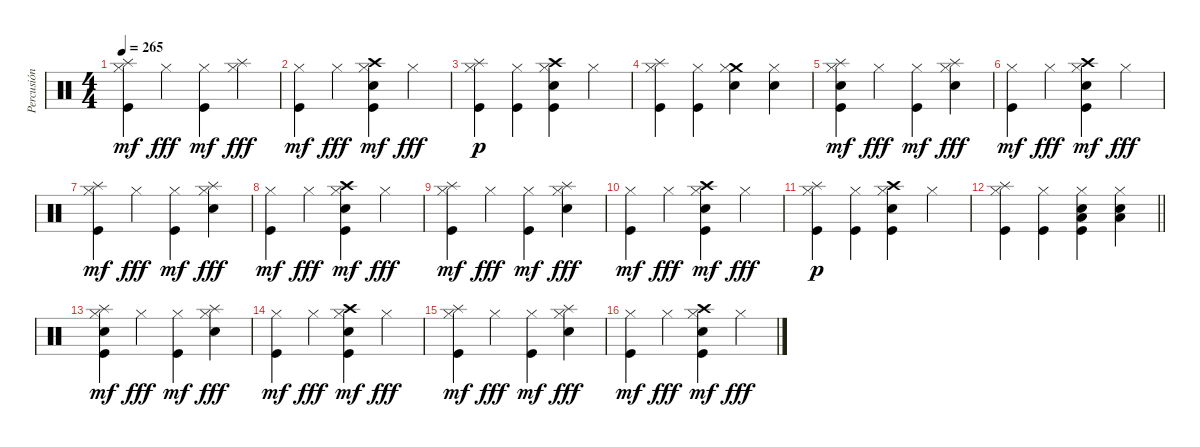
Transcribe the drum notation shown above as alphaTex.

\track ("Percusión" "Percusión") {instrument percussion}
\staff {score}
\articulation defaults
\ts (4 4)
\tempo 265
\clef neutral
\ks c
("Splash (hit)" "Hi-Hat (closed)" "Kick (hit)").4{dy mf} "Hi-Hat (closed)".4{dy fff} ("Hi-Hat (closed)" "Kick (hit)").4{dy mf} ("Splash (hit)" "Hi-Hat (closed)").4{dy fff} |
("Hi-Hat (closed)" "Kick (hit)").4{dy mf} "Hi-Hat (closed)".4{dy fff} ("Crash high (hit)" "Electric Snare (hit)" "Hi-Hat (closed)" "Kick (hit)").4{dy mf} "Hi-Hat (closed)".4{dy fff} |
("Splash (hit)" "Hi-Hat (closed)" "Kick (hit)").4{dy p} ("Hi-Hat (closed)" "Kick (hit)").4 ("Crash high (hit)" "Electric Snare (hit)" "Hi-Hat (closed)" "Kick (hit)").4 "Hi-Hat (closed)".4 |
("Splash (hit)" "Hi-Hat (closed)" "Kick (hit)").4 ("Hi-Hat (closed)" "Kick (hit)").4 ("Crash medium (hit)" "Electric Snare (hit)" "Hi-Hat (closed)").4 ("Electric Snare (hit)" "Hi-Hat (closed)").4 |
("Splash (hit)" "Electric Snare (hit)" "Hi-Hat (closed)" "Kick (hit)").4{dy mf} "Hi-Hat (closed)".4{dy fff} ("Hi-Hat (closed)" "Kick (hit)").4{dy mf} ("Splash (hit)" "Electric Snare (hit)" "Hi-Hat (closed)").4{dy fff} |
("Hi-Hat (closed)" "Kick (hit)").4{dy mf} "Hi-Hat (closed)".4{dy fff} ("Crash high (hit)" "Electric Snare (hit)" "Hi-Hat (closed)" "Kick (hit)").4{dy mf} "Hi-Hat (closed)".4{dy fff} |
("Splash (hit)" "Hi-Hat (closed)" "Kick (hit)").4{dy mf} "Hi-Hat (closed)".4{dy fff} ("Hi-Hat (closed)" "Kick (hit)").4{dy mf} ("Splash (hit)" "Electric Snare (hit)" "Hi-Hat (closed)").4{dy fff} |
("Hi-Hat (closed)" "Kick (hit)").4{dy mf} "Hi-Hat (closed)".4{dy fff} ("Crash high (hit)" "Electric Snare (hit)" "Hi-Hat (closed)" "Kick (hit)").4{dy mf} "Hi-Hat (closed)".4{dy fff} |
("Splash (hit)" "Hi-Hat (closed)" "Kick (hit)").4{dy mf} "Hi-Hat (closed)".4{dy fff} ("Hi-Hat (closed)" "Kick (hit)").4{dy mf} ("Splash (hit)" "Electric Snare (hit)" "Hi-Hat (closed)").4{dy fff} |
("Hi-Hat (closed)" "Kick (hit)").4{dy mf} "Hi-Hat (closed)".4{dy fff} ("Crash high (hit)" "Electric Snare (hit)" "Hi-Hat (closed)" "Kick (hit)").4{dy mf} "Hi-Hat (closed)".4{dy fff} |
("Splash (hit)" "Hi-Hat (closed)" "Kick (hit)").4{dy p} ("Hi-Hat (closed)" "Kick (hit)").4 ("Crash high (hit)" "Electric Snare (hit)" "Hi-Hat (closed)" "Kick (hit)").4 "Hi-Hat (closed)".4 |
\barLineRight lightlight
("Splash (hit)" "Hi-Hat (closed)" "Kick (hit)").4 ("Hi-Hat (closed)" "Kick (hit)").4 ("Low Floor Tom (hit)" "Electric Snare (hit)" "Hi-Hat (closed)" "Kick (hit)").4 ("Low Floor Tom (hit)" "Electric Snare (hit)" "Hi-Hat (closed)").4 |
("Splash (hit)" "Electric Snare (hit)" "Hi-Hat (closed)" "Kick (hit)").4{dy mf} "Hi-Hat (closed)".4{dy fff} ("Hi-Hat (closed)" "Kick (hit)").4{dy mf} ("Splash (hit)" "Electric Snare (hit)" "Hi-Hat (closed)").4{dy fff} |
("Hi-Hat (closed)" "Kick (hit)").4{dy mf} "Hi-Hat (closed)".4{dy fff} ("Crash high (hit)" "Electric Snare (hit)" "Hi-Hat (closed)" "Kick (hit)").4{dy mf} "Hi-Hat (closed)".4{dy fff} |
("Splash (hit)" "Hi-Hat (closed)" "Kick (hit)").4{dy mf} "Hi-Hat (closed)".4{dy fff} ("Hi-Hat (closed)" "Kick (hit)").4{dy mf} ("Splash (hit)" "Electric Snare (hit)" "Hi-Hat (closed)").4{dy fff} |
("Hi-Hat (closed)" "Kick (hit)").4{dy mf} "Hi-Hat (closed)".4{dy fff} ("Crash high (hit)" "Electric Snare (hit)" "Hi-Hat (closed)" "Kick (hit)").4{dy mf} "Hi-Hat (closed)".4{dy fff}
